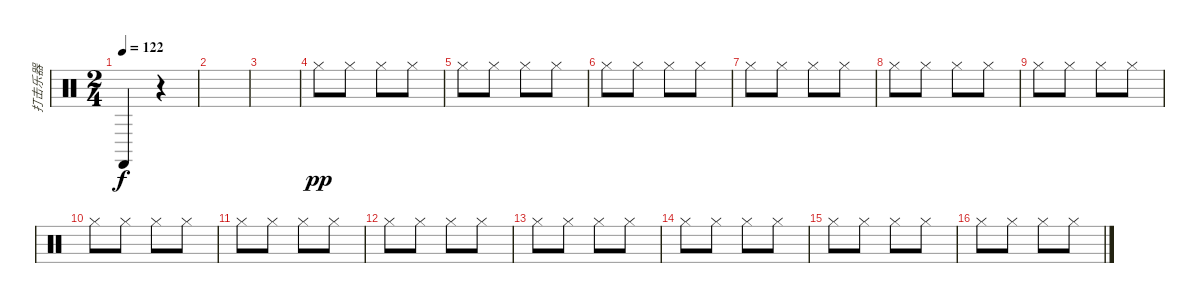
\track ("打击乐器" "打击乐器") {instrument percussion}
\staff {score}
\articulation defaults
\ts (2 4)
\tempo 122
\clef neutral
\ks c "Castanets (hit)".4{dy f}
r.4 |
|
|
"Hi-Hat (closed)".8{dy pp} "Hi-Hat (closed)".8 "Hi-Hat (closed)".8 "Hi-Hat (closed)".8 |
"Hi-Hat (closed)".8 "Hi-Hat (closed)".8 "Hi-Hat (closed)".8 "Hi-Hat (closed)".8 |
"Hi-Hat (closed)".8 "Hi-Hat (closed)".8 "Hi-Hat (closed)".8 "Hi-Hat (closed)".8 |
"Hi-Hat (closed)".8 "Hi-Hat (closed)".8 "Hi-Hat (closed)".8 "Hi-Hat (closed)".8 |
"Hi-Hat (closed)".8 "Hi-Hat (closed)".8 "Hi-Hat (closed)".8 "Hi-Hat (closed)".8 |
"Hi-Hat (closed)".8 "Hi-Hat (closed)".8 "Hi-Hat (closed)".8 "Hi-Hat (closed)".8 |
"Hi-Hat (closed)".8 "Hi-Hat (closed)".8 "Hi-Hat (closed)".8 "Hi-Hat (closed)".8 |
"Hi-Hat (closed)".8 "Hi-Hat (closed)".8 "Hi-Hat (closed)".8 "Hi-Hat (closed)".8 |
"Hi-Hat (closed)".8 "Hi-Hat (closed)".8 "Hi-Hat (closed)".8 "Hi-Hat (closed)".8 |
"Hi-Hat (closed)".8 "Hi-Hat (closed)".8 "Hi-Hat (closed)".8 "Hi-Hat (closed)".8 |
"Hi-Hat (closed)".8 "Hi-Hat (closed)".8 "Hi-Hat (closed)".8 "Hi-Hat (closed)".8 |
"Hi-Hat (closed)".8 "Hi-Hat (closed)".8 "Hi-Hat (closed)".8 "Hi-Hat (closed)".8 |
"Hi-Hat (closed)".8 "Hi-Hat (closed)".8 "Hi-Hat (closed)".8 "Hi-Hat (closed)".8
